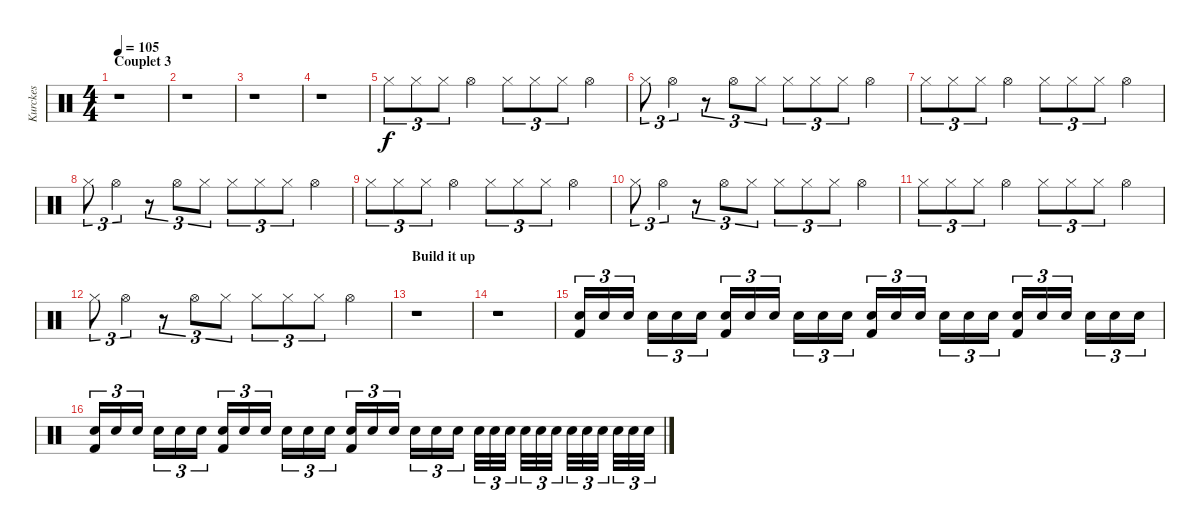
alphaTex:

\track ("Kurckes" "Kurckes") {instrument percussion}
\staff {score}
\articulation defaults
\ts (4 4)
\section ("" "Couplet 3")
\tempo 105
\clef neutral
\ks c
r.1{dy f} |
r.1 |
r.1 |
r.1 |
"Hi-Hat (closed)".8{tu (3 2)} "Hi-Hat (closed)".8{tu (3 2)} "Hi-Hat (closed)".8{tu (3 2)} "Hi-Hat (open)".4 "Hi-Hat (closed)".8{tu (3 2)} "Hi-Hat (closed)".8{tu (3 2)} "Hi-Hat (closed)".8{tu (3 2)} "Hi-Hat (open)".4 |
"Hi-Hat (closed)".8{tu (3 2)} "Hi-Hat (open)".4{tu (3 2)} r.8{tu (3 2)} "Hi-Hat (open)".8{tu (3 2)} "Hi-Hat (closed)".8{tu (3 2)} "Hi-Hat (closed)".8{tu (3 2)} "Hi-Hat (closed)".8{tu (3 2)} "Hi-Hat (closed)".8{tu (3 2)} "Hi-Hat (open)".4 |
"Hi-Hat (closed)".8{tu (3 2)} "Hi-Hat (closed)".8{tu (3 2)} "Hi-Hat (closed)".8{tu (3 2)} "Hi-Hat (open)".4 "Hi-Hat (closed)".8{tu (3 2)} "Hi-Hat (closed)".8{tu (3 2)} "Hi-Hat (closed)".8{tu (3 2)} "Hi-Hat (open)".4 |
"Hi-Hat (closed)".8{tu (3 2)} "Hi-Hat (open)".4{tu (3 2)} r.8{tu (3 2)} "Hi-Hat (open)".8{tu (3 2)} "Hi-Hat (closed)".8{tu (3 2)} "Hi-Hat (closed)".8{tu (3 2)} "Hi-Hat (closed)".8{tu (3 2)} "Hi-Hat (closed)".8{tu (3 2)} "Hi-Hat (open)".4 |
"Hi-Hat (closed)".8{tu (3 2)} "Hi-Hat (closed)".8{tu (3 2)} "Hi-Hat (closed)".8{tu (3 2)} "Hi-Hat (open)".4 "Hi-Hat (closed)".8{tu (3 2)} "Hi-Hat (closed)".8{tu (3 2)} "Hi-Hat (closed)".8{tu (3 2)} "Hi-Hat (open)".4 |
"Hi-Hat (closed)".8{tu (3 2)} "Hi-Hat (open)".4{tu (3 2)} r.8{tu (3 2)} "Hi-Hat (open)".8{tu (3 2)} "Hi-Hat (closed)".8{tu (3 2)} "Hi-Hat (closed)".8{tu (3 2)} "Hi-Hat (closed)".8{tu (3 2)} "Hi-Hat (closed)".8{tu (3 2)} "Hi-Hat (open)".4 |
"Hi-Hat (closed)".8{tu (3 2)} "Hi-Hat (closed)".8{tu (3 2)} "Hi-Hat (closed)".8{tu (3 2)} "Hi-Hat (open)".4 "Hi-Hat (closed)".8{tu (3 2)} "Hi-Hat (closed)".8{tu (3 2)} "Hi-Hat (closed)".8{tu (3 2)} "Hi-Hat (open)".4 |
"Hi-Hat (closed)".8{tu (3 2)} "Hi-Hat (open)".4{tu (3 2)} r.8{tu (3 2)} "Hi-Hat (open)".8{tu (3 2)} "Hi-Hat (closed)".8{tu (3 2)} "Hi-Hat (closed)".8{tu (3 2)} "Hi-Hat (closed)".8{tu (3 2)} "Hi-Hat (closed)".8{tu (3 2)} "Hi-Hat (open)".4 |
\section ("" "Build it up")
r.1{volume 0} |
r.1{volume 16} |
("Snare (hit) 2" "Kick (hit) 2").16{tu (3 2)} "Snare (hit) 2".16{tu (3 2)} "Snare (hit) 2".16{tu (3 2)} "Snare (hit) 2".16{tu (3 2)} "Snare (hit) 2".16{tu (3 2)} "Snare (hit) 2".16{tu (3 2)} ("Snare (hit) 2" "Kick (hit) 2").16{tu (3 2)} "Snare (hit) 2".16{tu (3 2)} "Snare (hit) 2".16{tu (3 2)} "Snare (hit) 2".16{tu (3 2)} "Snare (hit) 2".16{tu (3 2)} "Snare (hit) 2".16{tu (3 2)} ("Snare (hit) 2" "Kick (hit) 2").16{tu (3 2)} "Snare (hit) 2".16{tu (3 2)} "Snare (hit) 2".16{tu (3 2)} "Snare (hit) 2".16{tu (3 2)} "Snare (hit) 2".16{tu (3 2)} "Snare (hit) 2".16{tu (3 2)} ("Snare (hit) 2" "Kick (hit) 2").16{tu (3 2)} "Snare (hit) 2".16{tu (3 2)} "Snare (hit) 2".16{tu (3 2)} "Snare (hit) 2".16{tu (3 2)} "Snare (hit) 2".16{tu (3 2)} "Snare (hit) 2".16{tu (3 2)} |
("Snare (hit) 2" "Kick (hit) 2").16{tu (3 2)} "Snare (hit) 2".16{tu (3 2)} "Snare (hit) 2".16{tu (3 2)} "Snare (hit) 2".16{tu (3 2)} "Snare (hit) 2".16{tu (3 2)} "Snare (hit) 2".16{tu (3 2)} ("Snare (hit) 2" "Kick (hit) 2").16{tu (3 2)} "Snare (hit) 2".16{tu (3 2)} "Snare (hit) 2".16{tu (3 2)} "Snare (hit) 2".16{tu (3 2)} "Snare (hit) 2".16{tu (3 2)} "Snare (hit) 2".16{tu (3 2)} ("Snare (hit) 2" "Kick (hit) 2").16{tu (3 2)} "Snare (hit) 2".16{tu (3 2)} "Snare (hit) 2".16{tu (3 2)} "Snare (hit) 2".16{tu (3 2)} "Snare (hit) 2".16{tu (3 2)} "Snare (hit) 2".16{tu (3 2)} "Snare (hit) 2".32{tu (3 2)} "Snare (hit) 2".32{tu (3 2)} "Snare (hit) 2".32{tu (3 2)} "Snare (hit) 2".32{tu (3 2)} "Snare (hit) 2".32{tu (3 2)} "Snare (hit) 2".32{tu (3 2)} "Snare (hit) 2".32{tu (3 2)} "Snare (hit) 2".32{tu (3 2)} "Snare (hit) 2".32{tu (3 2)} "Snare (hit) 2".32{tu (3 2)} "Snare (hit) 2".32{tu (3 2)} "Snare (hit) 2".32{tu (3 2)}
